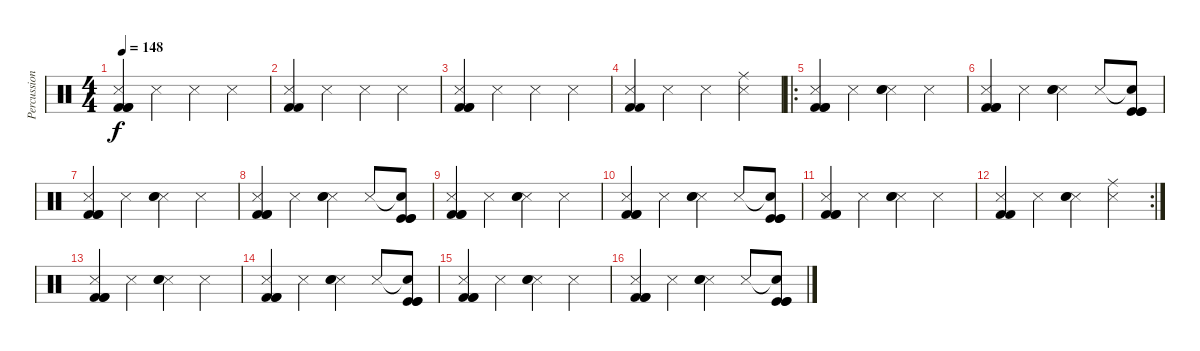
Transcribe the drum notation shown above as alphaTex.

\track ("Percussion" "Percussion") {instrument percussion}
\staff {score}
\articulation defaults
\ts (4 4)
\tempo 148
\clef neutral
\ks c
("Snare (side stick) 3" "Kick (hit) 2" "Kick (hit) 2" "Kick (hit) 2").4{dy f} "Snare (side stick) 3".4 "Snare (side stick) 3".4 "Snare (side stick) 3".4 |
("Snare (side stick) 3" "Kick (hit) 2" "Kick (hit) 2").4 "Snare (side stick) 3".4 "Snare (side stick) 3".4 "Snare (side stick) 3".4 |
("Snare (side stick) 3" "Kick (hit) 2" "Kick (hit) 2" "Kick (hit) 2").4 "Snare (side stick) 3".4 "Snare (side stick) 3".4 "Snare (side stick) 3".4 |
("Snare (side stick) 3" "Kick (hit) 2" "Kick (hit) 2").4 "Snare (side stick) 3".4 "Snare (side stick) 3".4 ("Snare (side stick) 3" "Ride (middle)").4 |
\ro
("Snare (side stick) 3" "Kick (hit) 2" "Kick (hit) 2" "Kick (hit) 2").4 "Snare (side stick) 3".4 ("Snare (side stick) 3" "Electric Snare (hit)" "Electric Snare (hit)").4 "Snare (side stick) 3".4 |
("Snare (side stick) 3" "Kick (hit) 2" "Kick (hit) 2" "Kick (hit) 2").4 "Snare (side stick) 3".4 ("Snare (side stick) 3" "Electric Snare (hit)" "Electric Snare (hit)").4 "Snare (side stick) 3".8 ("Snare (hit)"{t} "Kick (hit)" "Kick (hit)" "Kick (hit)").8 |
("Snare (side stick) 3" "Kick (hit) 2" "Kick (hit) 2" "Kick (hit) 2").4 "Snare (side stick) 3".4 ("Snare (side stick) 3" "Electric Snare (hit)" "Electric Snare (hit)").4 "Snare (side stick) 3".4 |
("Snare (side stick) 3" "Kick (hit) 2" "Kick (hit) 2" "Kick (hit) 2").4 "Snare (side stick) 3".4 ("Snare (side stick) 3" "Electric Snare (hit)" "Electric Snare (hit)").4 "Snare (side stick) 3".8 ("Snare (hit)"{t} "Kick (hit)" "Kick (hit)" "Kick (hit)").8 |
("Snare (side stick) 3" "Kick (hit) 2" "Kick (hit) 2" "Kick (hit) 2").4 "Snare (side stick) 3".4 ("Snare (side stick) 3" "Electric Snare (hit)" "Electric Snare (hit)").4 "Snare (side stick) 3".4 |
("Snare (side stick) 3" "Kick (hit) 2" "Kick (hit) 2" "Kick (hit) 2").4 "Snare (side stick) 3".4 ("Snare (side stick) 3" "Electric Snare (hit)" "Electric Snare (hit)").4 "Snare (side stick) 3".8 ("Snare (hit)"{t} "Kick (hit)" "Kick (hit)" "Kick (hit)").8 |
("Snare (side stick) 3" "Kick (hit) 2" "Kick (hit) 2" "Kick (hit) 2").4 "Snare (side stick) 3".4 ("Snare (side stick) 3" "Electric Snare (hit)" "Electric Snare (hit)").4 "Snare (side stick) 3".4 |
\rc 2
("Snare (side stick) 3" "Kick (hit) 2" "Kick (hit) 2").4 "Snare (side stick) 3".4 ("Snare (side stick) 3" "Electric Snare (hit)" "Electric Snare (hit)").4 ("Snare (side stick) 3" "Ride (middle)").4 |
("Snare (side stick) 3" "Kick (hit) 2" "Kick (hit) 2" "Kick (hit) 2").4 "Snare (side stick) 3".4 ("Snare (side stick) 3" "Electric Snare (hit)" "Electric Snare (hit)").4 "Snare (side stick) 3".4 |
("Snare (side stick) 3" "Kick (hit) 2" "Kick (hit) 2" "Kick (hit) 2").4 "Snare (side stick) 3".4 ("Snare (side stick) 3" "Electric Snare (hit)" "Electric Snare (hit)").4 "Snare (side stick) 3".8 ("Snare (hit)"{t} "Kick (hit)" "Kick (hit)" "Kick (hit)").8 |
("Snare (side stick) 3" "Kick (hit) 2" "Kick (hit) 2" "Kick (hit) 2").4 "Snare (side stick) 3".4 ("Snare (side stick) 3" "Electric Snare (hit)" "Electric Snare (hit)").4 "Snare (side stick) 3".4 |
("Snare (side stick) 3" "Kick (hit) 2" "Kick (hit) 2" "Kick (hit) 2").4 "Snare (side stick) 3".4 ("Snare (side stick) 3" "Electric Snare (hit)" "Electric Snare (hit)").4 "Snare (side stick) 3".8 ("Snare (hit)"{t} "Kick (hit)" "Kick (hit)" "Kick (hit)").8
